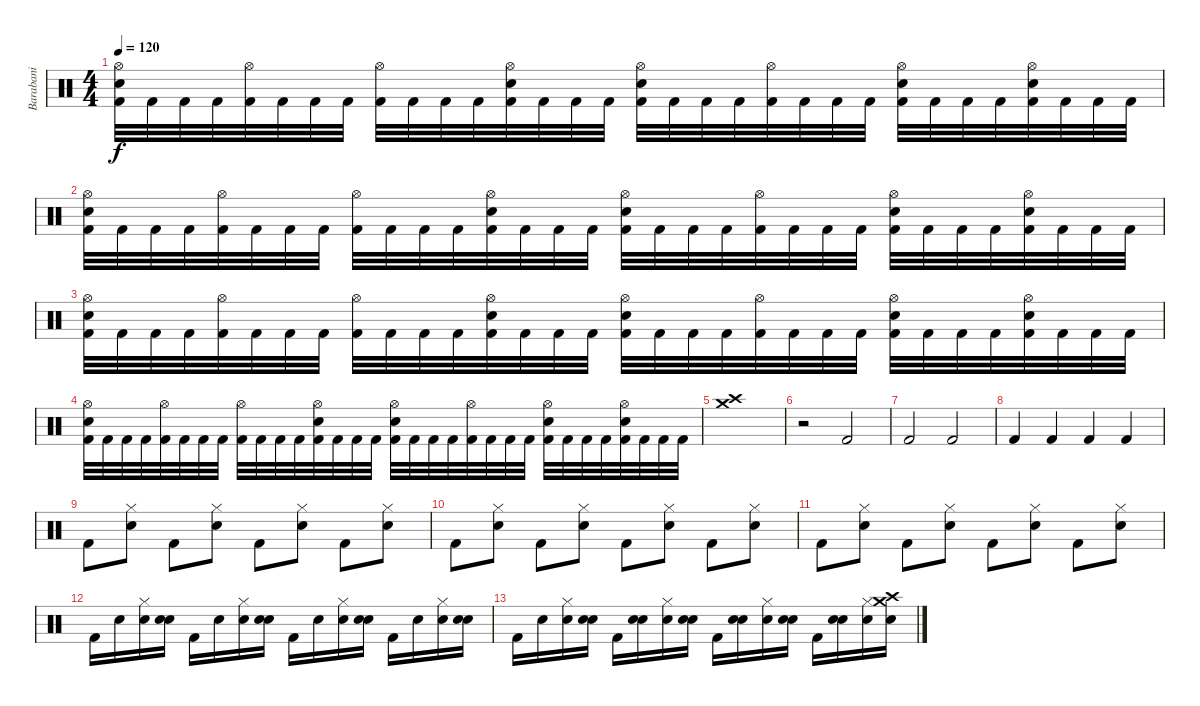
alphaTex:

\track ("Barabani" "Barabani") {instrument percussion}
\staff {score}
\articulation defaults
\ts (4 4)
\tempo 120
\clef neutral
\ks c
("Hi-Hat (open)" "Electric Snare (hit)" "Kick (hit) 2").32{dy f} "Kick (hit) 2".32 "Kick (hit) 2".32 "Kick (hit) 2".32 ("Hi-Hat (open)" "Kick (hit) 2").32 "Kick (hit) 2".32 "Kick (hit) 2".32 "Kick (hit) 2".32 ("Hi-Hat (open)" "Kick (hit) 2").32 "Kick (hit) 2".32 "Kick (hit) 2".32 "Kick (hit) 2".32 ("Hi-Hat (open)" "Electric Snare (hit)" "Kick (hit) 2").32 "Kick (hit) 2".32 "Kick (hit) 2".32 "Kick (hit) 2".32 ("Hi-Hat (open)" "Electric Snare (hit)" "Kick (hit) 2").32 "Kick (hit) 2".32 "Kick (hit) 2".32 "Kick (hit) 2".32 ("Hi-Hat (open)" "Kick (hit) 2").32 "Kick (hit) 2".32 "Kick (hit) 2".32 "Kick (hit) 2".32 ("Hi-Hat (open)" "Electric Snare (hit)" "Kick (hit) 2").32 "Kick (hit) 2".32 "Kick (hit) 2".32 "Kick (hit) 2".32 ("Hi-Hat (open)" "Electric Snare (hit)" "Kick (hit) 2").32 "Kick (hit) 2".32 "Kick (hit) 2".32 "Kick (hit) 2".32 |
("Hi-Hat (open)" "Electric Snare (hit)" "Kick (hit) 2").32 "Kick (hit) 2".32 "Kick (hit) 2".32 "Kick (hit) 2".32 ("Hi-Hat (open)" "Kick (hit) 2").32 "Kick (hit) 2".32 "Kick (hit) 2".32 "Kick (hit) 2".32 ("Hi-Hat (open)" "Kick (hit) 2").32 "Kick (hit) 2".32 "Kick (hit) 2".32 "Kick (hit) 2".32 ("Hi-Hat (open)" "Electric Snare (hit)" "Kick (hit) 2").32 "Kick (hit) 2".32 "Kick (hit) 2".32 "Kick (hit) 2".32 ("Hi-Hat (open)" "Electric Snare (hit)" "Kick (hit) 2").32 "Kick (hit) 2".32 "Kick (hit) 2".32 "Kick (hit) 2".32 ("Hi-Hat (open)" "Kick (hit) 2").32 "Kick (hit) 2".32 "Kick (hit) 2".32 "Kick (hit) 2".32 ("Hi-Hat (open)" "Electric Snare (hit)" "Kick (hit) 2").32 "Kick (hit) 2".32 "Kick (hit) 2".32 "Kick (hit) 2".32 ("Hi-Hat (open)" "Electric Snare (hit)" "Kick (hit) 2").32 "Kick (hit) 2".32 "Kick (hit) 2".32 "Kick (hit) 2".32 |
("Hi-Hat (open)" "Electric Snare (hit)" "Kick (hit) 2").32 "Kick (hit) 2".32 "Kick (hit) 2".32 "Kick (hit) 2".32 ("Hi-Hat (open)" "Kick (hit) 2").32 "Kick (hit) 2".32 "Kick (hit) 2".32 "Kick (hit) 2".32 ("Hi-Hat (open)" "Kick (hit) 2").32 "Kick (hit) 2".32 "Kick (hit) 2".32 "Kick (hit) 2".32 ("Hi-Hat (open)" "Electric Snare (hit)" "Kick (hit) 2").32 "Kick (hit) 2".32 "Kick (hit) 2".32 "Kick (hit) 2".32 ("Hi-Hat (open)" "Electric Snare (hit)" "Kick (hit) 2").32 "Kick (hit) 2".32 "Kick (hit) 2".32 "Kick (hit) 2".32 ("Hi-Hat (open)" "Kick (hit) 2").32 "Kick (hit) 2".32 "Kick (hit) 2".32 "Kick (hit) 2".32 ("Hi-Hat (open)" "Electric Snare (hit)" "Kick (hit) 2").32 "Kick (hit) 2".32 "Kick (hit) 2".32 "Kick (hit) 2".32 ("Hi-Hat (open)" "Electric Snare (hit)" "Kick (hit) 2").32 "Kick (hit) 2".32 "Kick (hit) 2".32 "Kick (hit) 2".32 |
("Hi-Hat (open)" "Electric Snare (hit)" "Kick (hit) 2").32 "Kick (hit) 2".32 "Kick (hit) 2".32 "Kick (hit) 2".32 ("Hi-Hat (open)" "Kick (hit) 2").32 "Kick (hit) 2".32 "Kick (hit) 2".32 "Kick (hit) 2".32 ("Hi-Hat (open)" "Kick (hit) 2").32 "Kick (hit) 2".32 "Kick (hit) 2".32 "Kick (hit) 2".32 ("Hi-Hat (open)" "Electric Snare (hit)" "Kick (hit) 2").32 "Kick (hit) 2".32 "Kick (hit) 2".32 "Kick (hit) 2".32 ("Hi-Hat (open)" "Electric Snare (hit)" "Kick (hit) 2").32 "Kick (hit) 2".32 "Kick (hit) 2".32 "Kick (hit) 2".32 ("Hi-Hat (open)" "Kick (hit) 2").32 "Kick (hit) 2".32 "Kick (hit) 2".32 "Kick (hit) 2".32 ("Hi-Hat (open)" "Electric Snare (hit)" "Kick (hit) 2").32 "Kick (hit) 2".32 "Kick (hit) 2".32 "Kick (hit) 2".32 ("Hi-Hat (open)" "Electric Snare (hit)" "Kick (hit) 2").32 "Kick (hit) 2".32 "Kick (hit) 2".32 "Kick (hit) 2".32 |
("Crash medium (hit)" "Crash high (hit)").1 |
r.2 "Kick (hit) 2".2 |
"Kick (hit) 2".2 "Kick (hit) 2".2 |
"Kick (hit) 2".4 "Kick (hit) 2".4 "Kick (hit) 2".4 "Kick (hit) 2".4 |
"Kick (hit) 2".8 ("Hi-Hat (closed)" "Snare (hit)").8 "Kick (hit) 2".8 ("Hi-Hat (closed)" "Snare (hit)").8 "Kick (hit) 2".8 ("Hi-Hat (closed)" "Snare (hit)").8 "Kick (hit) 2".8 ("Hi-Hat (closed)" "Snare (hit)").8 |
"Kick (hit) 2".8 ("Hi-Hat (closed)" "Snare (hit)").8 "Kick (hit) 2".8 ("Hi-Hat (closed)" "Snare (hit)").8 "Kick (hit) 2".8 ("Hi-Hat (closed)" "Snare (hit)").8 "Kick (hit) 2".8 ("Hi-Hat (closed)" "Snare (hit)").8 |
"Kick (hit) 2".8 ("Hi-Hat (closed)" "Snare (hit)").8 "Kick (hit) 2".8 ("Hi-Hat (closed)" "Snare (hit)").8 "Kick (hit) 2".8 ("Hi-Hat (closed)" "Snare (hit)").8 "Kick (hit) 2".8 ("Hi-Hat (closed)" "Snare (hit)").8 |
"Kick (hit) 2".16 "Snare (hit)".16 ("Hi-Hat (closed)" "Snare (hit)").16 ("Electric Snare (hit)" "Snare (hit)").16 "Kick (hit) 2".16 "Snare (hit)".16 ("Hi-Hat (closed)" "Snare (hit)").16 ("Electric Snare (hit)" "Snare (hit)").16 "Kick (hit) 2".16 "Snare (hit)".16 ("Hi-Hat (closed)" "Snare (hit)").16 ("Electric Snare (hit)" "Snare (hit)").16 "Kick (hit) 2".16 "Snare (hit)".16 ("Hi-Hat (closed)" "Snare (hit)").16 ("Electric Snare (hit)" "Snare (hit)").16 |
"Kick (hit) 2".16 "Snare (hit)".16 ("Hi-Hat (closed)" "Snare (hit)").16 ("Electric Snare (hit)" "Snare (hit)").16 "Kick (hit) 2".16 ("Electric Snare (hit)" "Snare (hit)").16 ("Hi-Hat (closed)" "Snare (hit)").16 ("Electric Snare (hit)" "Snare (hit)").16 "Kick (hit) 2".16 ("Electric Snare (hit)" "Snare (hit)").16 ("Hi-Hat (closed)" "Snare (hit)").16 ("Electric Snare (hit)" "Snare (hit)").16 "Kick (hit) 2".16 ("Electric Snare (hit)" "Snare (hit)").16 ("Hi-Hat (closed)" "Snare (hit)").16 ("Crash medium (hit)" "Crash high (hit)" "Snare (hit)").16
